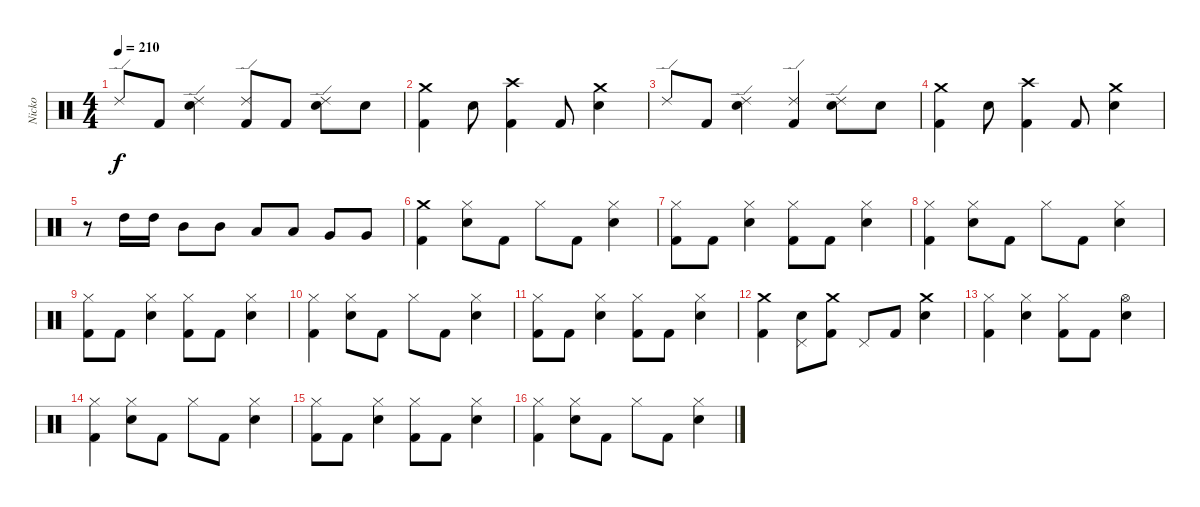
\track ("Nicko" "Nicko") {instrument percussion}
\staff {score}
\articulation defaults
\ts (4 4)
\tempo 210
\clef neutral
\ks c "Ride (edge) 2".8{dy f} "Kick (hit) 2".8
("Ride (edge) 2" "Electric Snare (hit)").4 ("Ride (edge) 2" "Kick (hit) 2").8 "Kick (hit) 2".8 ("Ride (edge) 2" "Electric Snare (hit)").8 "Electric Snare (hit)".8 |
("Crash medium (hit)" "Kick (hit) 2").4 "Electric Snare (hit)".8 ("Crash high (hit)" "Kick (hit) 2").4 "Kick (hit) 2".8 ("Crash medium (hit)" "Electric Snare (hit)").4 |
"Ride (edge) 2".8 "Kick (hit) 2".8 ("Ride (edge) 2" "Electric Snare (hit)").4 ("Ride (edge) 2" "Kick (hit) 2").4 ("Ride (edge) 2" "Electric Snare (hit)").8 "Electric Snare (hit)".8 |
("Crash medium (hit)" "Kick (hit) 2").4 "Electric Snare (hit)".8 ("Crash high (hit)" "Kick (hit) 2").4 "Kick (hit) 2".8 ("Crash medium (hit)" "Electric Snare (hit)").4 |
r.8 "High Tom (hit)".16 "High Tom (hit)".16 "Mid Tom (hit)".8 "Mid Tom (hit)".8 "Low Tom (hit)".8 "Low Tom (hit)".8 "Very Low Tom (hit)".8 "Very Low Tom (hit)".8 |
("Crash medium (hit)" "Kick (hit) 2").4 ("Hi-Hat (closed)" "Electric Snare (hit)").8 "Kick (hit) 2".8 "Hi-Hat (closed)".8 "Kick (hit) 2".8 ("Hi-Hat (closed)" "Electric Snare (hit)").4 |
("Hi-Hat (closed)" "Kick (hit) 2").8 "Kick (hit) 2".8 ("Hi-Hat (closed)" "Electric Snare (hit)").4 ("Hi-Hat (closed)" "Kick (hit) 2").8 "Kick (hit) 2".8 ("Hi-Hat (closed)" "Electric Snare (hit)").4 |
("Hi-Hat (closed)" "Kick (hit) 2").4 ("Hi-Hat (closed)" "Electric Snare (hit)").8 "Kick (hit) 2".8 "Hi-Hat (closed)".8 "Kick (hit) 2".8 ("Hi-Hat (closed)" "Electric Snare (hit)").4 |
("Hi-Hat (closed)" "Kick (hit) 2").8 "Kick (hit) 2".8 ("Hi-Hat (closed)" "Electric Snare (hit)").4 ("Hi-Hat (closed)" "Kick (hit) 2").8 "Kick (hit) 2".8 ("Hi-Hat (closed)" "Electric Snare (hit)").4 |
("Hi-Hat (closed)" "Kick (hit) 2").4 ("Hi-Hat (closed)" "Electric Snare (hit)").8 "Kick (hit) 2".8 "Hi-Hat (closed)".8 "Kick (hit) 2".8 ("Hi-Hat (closed)" "Electric Snare (hit)").4 |
("Hi-Hat (closed)" "Kick (hit) 2").8 "Kick (hit) 2".8 ("Hi-Hat (closed)" "Electric Snare (hit)").4 ("Hi-Hat (closed)" "Kick (hit) 2").8 "Kick (hit) 2".8 ("Hi-Hat (closed)" "Electric Snare (hit)").4 |
("Crash medium (hit)" "Kick (hit) 2").4 ("Pedal Hi-Hat (hit)" "Electric Snare (hit)").8 ("Crash medium (hit)" "Kick (hit) 2").8 "Pedal Hi-Hat (hit)".8 "Kick (hit) 2".8 ("Crash medium (hit)" "Electric Snare (hit)").4 |
("Hi-Hat (closed)" "Kick (hit) 2").4 ("Hi-Hat (closed)" "Electric Snare (hit)").4 ("Hi-Hat (closed)" "Kick (hit) 2").8 "Kick (hit) 2".8 ("Hi-Hat (open)" "Electric Snare (hit)").4 |
("Hi-Hat (closed)" "Kick (hit) 2").4 ("Hi-Hat (closed)" "Electric Snare (hit)").8 "Kick (hit) 2".8 "Hi-Hat (closed)".8 "Kick (hit) 2".8 ("Hi-Hat (closed)" "Electric Snare (hit)").4 |
("Hi-Hat (closed)" "Kick (hit) 2").8 "Kick (hit) 2".8 ("Hi-Hat (closed)" "Electric Snare (hit)").4 ("Hi-Hat (closed)" "Kick (hit) 2").8 "Kick (hit) 2".8 ("Hi-Hat (closed)" "Electric Snare (hit)").4 |
("Hi-Hat (closed)" "Kick (hit) 2").4 ("Hi-Hat (closed)" "Electric Snare (hit)").8 "Kick (hit) 2".8 "Hi-Hat (closed)".8 "Kick (hit) 2".8 ("Hi-Hat (closed)" "Electric Snare (hit)").4
